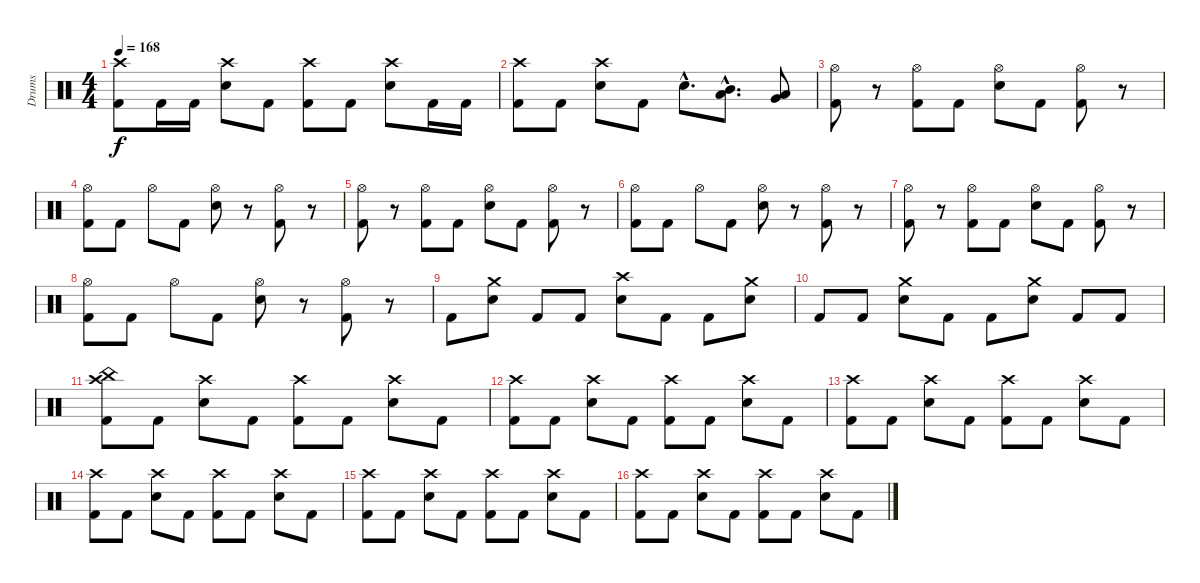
\track ("Drums" "Drums") {instrument percussion}
\staff {score}
\articulation defaults
\ts (4 4)
\tempo 168
\clef neutral
\ks c
("Crash high (hit)" "Kick (hit) 2").8{dy f} "Kick (hit) 2".16 "Kick (hit) 2".16 ("Crash high (hit)" "Snare (hit) 2").8 "Kick (hit) 2".8 ("Crash high (hit)" "Kick (hit) 2").8 "Kick (hit) 2".8 ("Crash high (hit)" "Snare (hit) 2").8 "Kick (hit) 2".16 "Kick (hit) 2".16 |
("Crash high (hit)" "Kick (hit) 2").8 "Kick (hit) 2".8 ("Crash high (hit)" "Snare (hit) 2").8 "Kick (hit) 2".8 "Snare (hit) 2"{hac}.8{d} ("Mid Tom (hit)"{hac} "Low Tom (hit)"{hac}).8{d} ("Low Tom (hit)" "Very Low Tom (hit)").8 |
("Hi-Hat (open)" "Kick (hit) 2").8 r.8 ("Hi-Hat (open)" "Kick (hit) 2").8 "Kick (hit) 2".8 ("Hi-Hat (open)" "Snare (hit) 2").8 "Kick (hit) 2".8 ("Hi-Hat (open)" "Kick (hit) 2").8 r.8 |
("Hi-Hat (open)" "Kick (hit) 2").8 "Kick (hit) 2".8 "Hi-Hat (open)".8 "Kick (hit) 2".8 ("Hi-Hat (open)" "Snare (hit) 2").8 r.8 ("Hi-Hat (open)" "Kick (hit) 2").8 r.8 |
("Hi-Hat (open)" "Kick (hit) 2").8 r.8 ("Hi-Hat (open)" "Kick (hit) 2").8 "Kick (hit) 2".8 ("Hi-Hat (open)" "Snare (hit) 2").8 "Kick (hit) 2".8 ("Hi-Hat (open)" "Kick (hit) 2").8 r.8 |
("Hi-Hat (open)" "Kick (hit) 2").8 "Kick (hit) 2".8 "Hi-Hat (open)".8 "Kick (hit) 2".8 ("Hi-Hat (open)" "Snare (hit) 2").8 r.8 ("Hi-Hat (open)" "Kick (hit) 2").8 r.8 |
("Hi-Hat (open)" "Kick (hit) 2").8 r.8 ("Hi-Hat (open)" "Kick (hit) 2").8 "Kick (hit) 2".8 ("Hi-Hat (open)" "Snare (hit) 2").8 "Kick (hit) 2".8 ("Hi-Hat (open)" "Kick (hit) 2").8 r.8 |
("Hi-Hat (open)" "Kick (hit) 2").8 "Kick (hit) 2".8 "Hi-Hat (open)".8 "Kick (hit) 2".8 ("Hi-Hat (open)" "Snare (hit) 2").8 r.8 ("Hi-Hat (open)" "Kick (hit) 2").8 r.8 |
"Kick (hit) 2".8 ("Crash medium (hit)" "Snare (hit) 2").8 "Kick (hit) 2".8 "Kick (hit) 2".8 ("Crash high (hit)" "Snare (hit) 2").8 "Kick (hit) 2".8 "Kick (hit) 2".8 ("Crash medium (hit)" "Snare (hit) 2").8 |
"Kick (hit) 2".8 "Kick (hit) 2".8 ("Crash medium (hit)" "Snare (hit) 2").8 "Kick (hit) 2".8 "Kick (hit) 2".8 ("Crash medium (hit)" "Snare (hit) 2").8 "Kick (hit) 2".8 "Kick (hit) 2".8 |
("Crash high (hit)" "China (hit)" "Kick (hit) 2").8 "Kick (hit) 2".8 ("Crash high (hit)" "Snare (hit) 2").8 "Kick (hit) 2".8 ("Crash high (hit)" "Kick (hit) 2").8 "Kick (hit) 2".8 ("Crash high (hit)" "Snare (hit) 2").8 "Kick (hit) 2".8 |
("Crash high (hit)" "Kick (hit) 2").8 "Kick (hit) 2".8 ("Crash high (hit)" "Snare (hit) 2").8 "Kick (hit) 2".8 ("Crash high (hit)" "Kick (hit) 2").8 "Kick (hit) 2".8 ("Crash high (hit)" "Snare (hit) 2").8 "Kick (hit) 2".8 |
("Crash high (hit)" "Kick (hit) 2").8 "Kick (hit) 2".8 ("Crash high (hit)" "Snare (hit) 2").8 "Kick (hit) 2".8 ("Crash high (hit)" "Kick (hit) 2").8 "Kick (hit) 2".8 ("Crash high (hit)" "Snare (hit) 2").8 "Kick (hit) 2".8 |
("Crash high (hit)" "Kick (hit) 2").8 "Kick (hit) 2".8 ("Crash high (hit)" "Snare (hit) 2").8 "Kick (hit) 2".8 ("Crash high (hit)" "Kick (hit) 2").8 "Kick (hit) 2".8 ("Crash high (hit)" "Snare (hit) 2").8 "Kick (hit) 2".8 |
("Crash high (hit)" "Kick (hit) 2").8 "Kick (hit) 2".8 ("Crash high (hit)" "Snare (hit) 2").8 "Kick (hit) 2".8 ("Crash high (hit)" "Kick (hit) 2").8 "Kick (hit) 2".8 ("Crash high (hit)" "Snare (hit) 2").8 "Kick (hit) 2".8 |
("Crash high (hit)" "Kick (hit) 2").8 "Kick (hit) 2".8 ("Crash high (hit)" "Snare (hit) 2").8 "Kick (hit) 2".8 ("Crash high (hit)" "Kick (hit) 2").8 "Kick (hit) 2".8 ("Crash high (hit)" "Snare (hit) 2").8 "Kick (hit) 2".8
